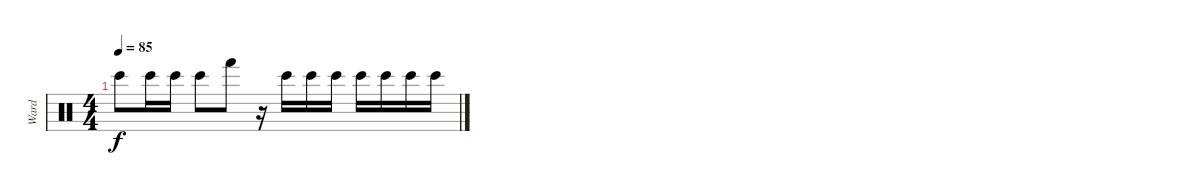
\track ("Ward" "Ward") {instrument percussion}
\staff {score}
\articulation defaults
\ts (4 4)
\tempo 85
\clef neutral
\ks c "Bongo High (hit)".8{dy f} "Bongo High (hit)".16 "Bongo High (hit)".16 "Bongo High (hit)".8 "Hand (hit)".8
r.16 "Bongo High (hit)".16 "Bongo High (hit)".16 "Bongo High (hit)".16 "Bongo High (hit)".16 "Bongo High (hit)".16 "Bongo High (hit)".16 "Bongo High (hit)".16
